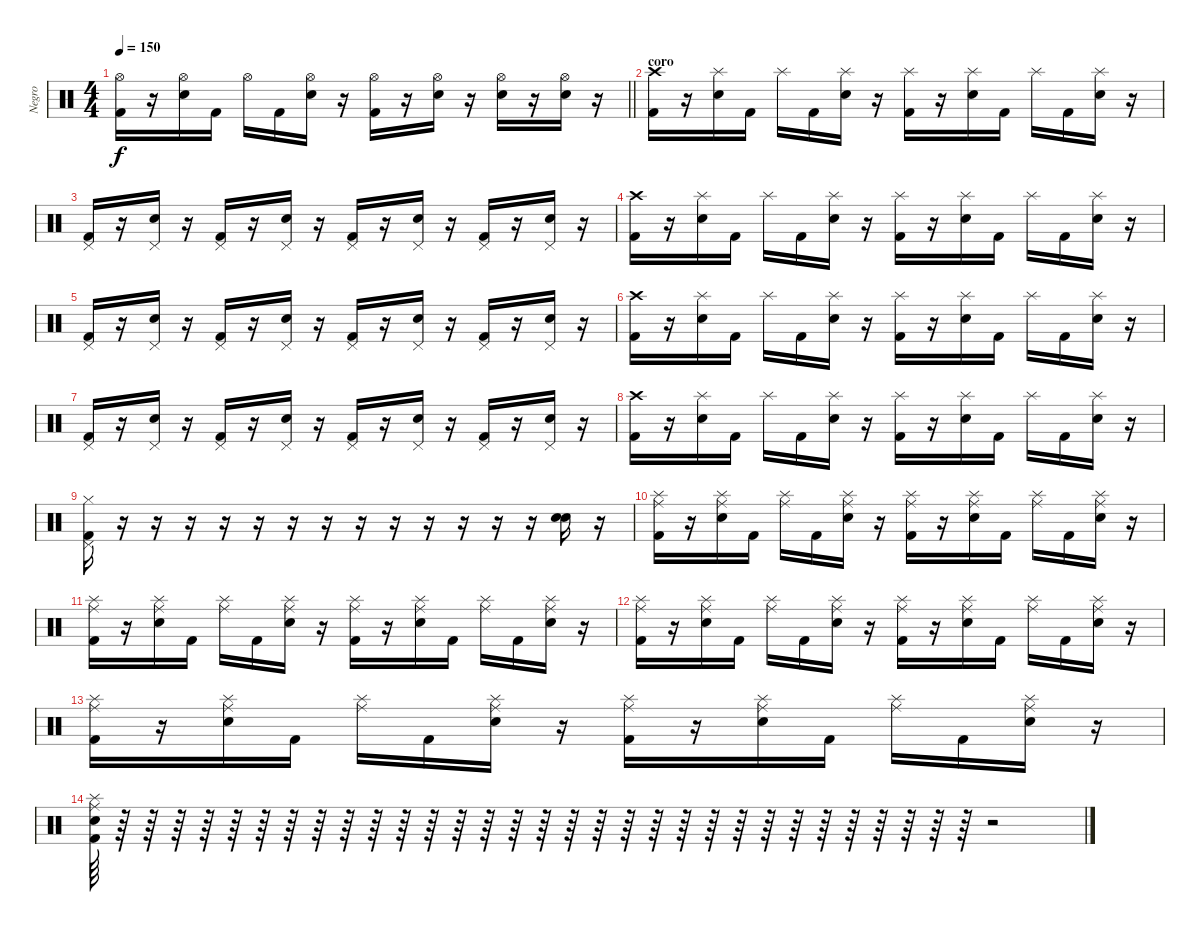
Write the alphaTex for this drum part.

\track ("Negro" "Negro") {instrument percussion}
\staff {score}
\articulation defaults
\ts (4 4)
\tempo 150
\clef neutral
\barLineRight lightlight
\ks c
("Kick (hit) 2" "Hi-Hat (open)").16{dy f} r.16 ("Electric Snare (hit)" "Hi-Hat (open)").16 "Kick (hit) 2".16 "Hi-Hat (open)".16 "Kick (hit) 2".16 ("Electric Snare (hit)" "Hi-Hat (open)").16 r.16 ("Kick (hit) 2" "Hi-Hat (open)").16 r.16 ("Electric Snare (hit)" "Hi-Hat (open)").16 r.16 ("Electric Snare (hit)" "Hi-Hat (open)").16 r.16 ("Electric Snare (hit)" "Hi-Hat (open)").16 r.16 |
\section ("" "coro")
("Kick (hit) 2" "Crash high (hit)").16 r.16 ("Electric Snare (hit)" "Splash (hit)").16 "Kick (hit) 2".16 "Splash (hit)".16 "Kick (hit) 2".16 ("Electric Snare (hit)" "Splash (hit)").16 r.16 ("Kick (hit) 2" "Splash (hit)").16 r.16 ("Electric Snare (hit)" "Splash (hit)").16 "Kick (hit) 2".16 "Splash (hit)".16 "Kick (hit) 2".16 ("Electric Snare (hit)" "Splash (hit)").16 r.16 |
("Kick (hit) 2" "Pedal Hi-Hat (hit)").16 r.16 ("Electric Snare (hit)" "Pedal Hi-Hat (hit)").16 r.16 ("Kick (hit) 2" "Pedal Hi-Hat (hit)").16 r.16 ("Electric Snare (hit)" "Pedal Hi-Hat (hit)").16 r.16 ("Kick (hit) 2" "Pedal Hi-Hat (hit)").16 r.16 ("Electric Snare (hit)" "Pedal Hi-Hat (hit)").16 r.16 ("Kick (hit) 2" "Pedal Hi-Hat (hit)").16 r.16 ("Electric Snare (hit)" "Pedal Hi-Hat (hit)").16 r.16 |
("Kick (hit) 2" "Crash high (hit)").16 r.16 ("Electric Snare (hit)" "Splash (hit)").16 "Kick (hit) 2".16 "Splash (hit)".16 "Kick (hit) 2".16 ("Electric Snare (hit)" "Splash (hit)").16 r.16 ("Kick (hit) 2" "Splash (hit)").16 r.16 ("Electric Snare (hit)" "Splash (hit)").16 "Kick (hit) 2".16 "Splash (hit)".16 "Kick (hit) 2".16 ("Electric Snare (hit)" "Splash (hit)").16 r.16 |
("Kick (hit) 2" "Pedal Hi-Hat (hit)").16 r.16 ("Electric Snare (hit)" "Pedal Hi-Hat (hit)").16 r.16 ("Kick (hit) 2" "Pedal Hi-Hat (hit)").16 r.16 ("Electric Snare (hit)" "Pedal Hi-Hat (hit)").16 r.16 ("Kick (hit) 2" "Pedal Hi-Hat (hit)").16 r.16 ("Electric Snare (hit)" "Pedal Hi-Hat (hit)").16 r.16 ("Kick (hit) 2" "Pedal Hi-Hat (hit)").16 r.16 ("Electric Snare (hit)" "Pedal Hi-Hat (hit)").16 r.16 |
("Kick (hit) 2" "Crash high (hit)").16 r.16 ("Electric Snare (hit)" "Splash (hit)").16 "Kick (hit) 2".16 "Splash (hit)".16 "Kick (hit) 2".16 ("Electric Snare (hit)" "Splash (hit)").16 r.16 ("Kick (hit) 2" "Splash (hit)").16 r.16 ("Electric Snare (hit)" "Splash (hit)").16 "Kick (hit) 2".16 "Splash (hit)".16 "Kick (hit) 2".16 ("Electric Snare (hit)" "Splash (hit)").16 r.16 |
("Kick (hit) 2" "Pedal Hi-Hat (hit)").16 r.16 ("Electric Snare (hit)" "Pedal Hi-Hat (hit)").16 r.16 ("Kick (hit) 2" "Pedal Hi-Hat (hit)").16 r.16 ("Electric Snare (hit)" "Pedal Hi-Hat (hit)").16 r.16 ("Kick (hit) 2" "Pedal Hi-Hat (hit)").16 r.16 ("Electric Snare (hit)" "Pedal Hi-Hat (hit)").16 r.16 ("Kick (hit) 2" "Pedal Hi-Hat (hit)").16 r.16 ("Electric Snare (hit)" "Pedal Hi-Hat (hit)").16 r.16 |
("Kick (hit) 2" "Crash high (hit)").16 r.16 ("Electric Snare (hit)" "Splash (hit)").16 "Kick (hit) 2".16 "Splash (hit)".16 "Kick (hit) 2".16 ("Electric Snare (hit)" "Splash (hit)").16 r.16 ("Kick (hit) 2" "Splash (hit)").16 r.16 ("Electric Snare (hit)" "Splash (hit)").16 "Kick (hit) 2".16 "Splash (hit)".16 "Kick (hit) 2".16 ("Electric Snare (hit)" "Splash (hit)").16 r.16 |
("Kick (hit) 2" "Pedal Hi-Hat (hit)" "Hi-Hat (closed)").16 r.16 r.16 r.16 r.16 r.16 r.16 r.16 r.16 r.16 r.16 r.16 r.16 r.16 ("Electric Snare (hit)" "Electric Snare (hit)").16 r.16 |
("Kick (hit) 2" "Ride (middle)" "Splash (hit)").16 r.16 ("Electric Snare (hit)" "Ride (middle)" "Splash (hit)").16 "Kick (hit) 2".16 ("Ride (middle)" "Splash (hit)").16 "Kick (hit) 2".16 ("Electric Snare (hit)" "Ride (middle)" "Splash (hit)").16 r.16 ("Kick (hit) 2" "Ride (middle)" "Splash (hit)").16 r.16 ("Electric Snare (hit)" "Ride (middle)" "Splash (hit)").16 "Kick (hit) 2".16 ("Ride (middle)" "Splash (hit)").16 "Kick (hit) 2".16 ("Electric Snare (hit)" "Ride (middle)" "Splash (hit)").16 r.16 |
("Kick (hit) 2" "Ride (middle)" "Splash (hit)").16 r.16 ("Electric Snare (hit)" "Ride (middle)" "Splash (hit)").16 "Kick (hit) 2".16 ("Ride (middle)" "Splash (hit)").16 "Kick (hit) 2".16 ("Electric Snare (hit)" "Ride (middle)" "Splash (hit)").16 r.16 ("Kick (hit) 2" "Ride (middle)" "Splash (hit)").16 r.16 ("Electric Snare (hit)" "Ride (middle)" "Splash (hit)").16 "Kick (hit) 2".16 ("Ride (middle)" "Splash (hit)").16 "Kick (hit) 2".16 ("Electric Snare (hit)" "Ride (middle)" "Splash (hit)").16 r.16 |
("Kick (hit) 2" "Ride (middle)" "Splash (hit)").16 r.16 ("Electric Snare (hit)" "Ride (middle)" "Splash (hit)").16 "Kick (hit) 2".16 ("Ride (middle)" "Splash (hit)").16 "Kick (hit) 2".16 ("Electric Snare (hit)" "Ride (middle)" "Splash (hit)").16 r.16 ("Kick (hit) 2" "Ride (middle)" "Splash (hit)").16 r.16 ("Electric Snare (hit)" "Ride (middle)" "Splash (hit)").16 "Kick (hit) 2".16 ("Ride (middle)" "Splash (hit)").16 "Kick (hit) 2".16 ("Electric Snare (hit)" "Ride (middle)" "Splash (hit)").16 r.16 |
("Kick (hit) 2" "Ride (middle)" "Splash (hit)").16 r.16 ("Electric Snare (hit)" "Ride (middle)" "Splash (hit)").16 "Kick (hit) 2".16 ("Ride (middle)" "Splash (hit)").16 "Kick (hit) 2".16 ("Electric Snare (hit)" "Ride (middle)" "Splash (hit)").16 r.16 ("Kick (hit) 2" "Ride (middle)" "Splash (hit)").16 r.16 ("Electric Snare (hit)" "Ride (middle)" "Splash (hit)").16 "Kick (hit) 2".16 ("Ride (middle)" "Splash (hit)").16 "Kick (hit) 2".16 ("Electric Snare (hit)" "Ride (middle)" "Splash (hit)").16 r.16 |
("Splash (hit)" "Electric Snare (hit)" "Kick (hit) 2" "Ride (middle)").64 r.64 r.64 r.64 r.64 r.64 r.64 r.64 r.64 r.64 r.64 r.64 r.64 r.64 r.64 r.64 r.64 r.64 r.64 r.64 r.64 r.64 r.64 r.64 r.64 r.64 r.64 r.64 r.64 r.64 r.64 r.64 r.2
